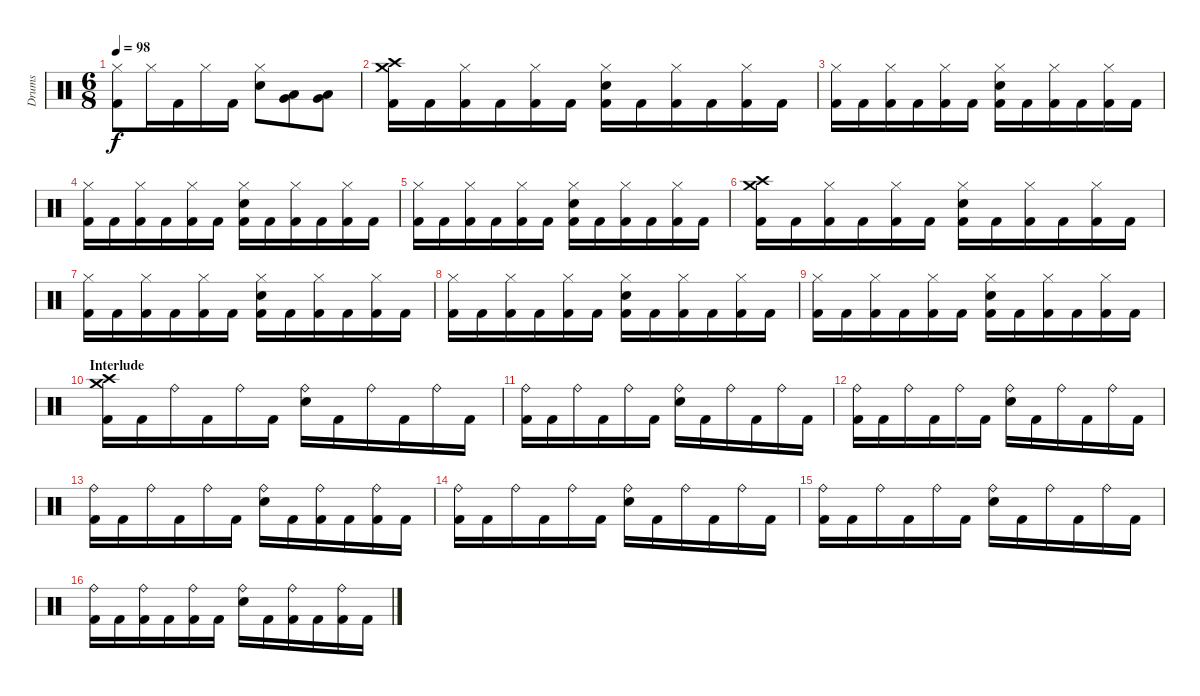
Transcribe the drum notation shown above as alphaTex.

\track ("Drums" "Drums") {instrument percussion}
\staff {score}
\articulation defaults
\ts (6 8)
\tempo 98
\clef neutral
\ks c
("Hi-Hat (closed)" "Kick (hit) 2").8{dy f} "Hi-Hat (closed)".16 "Kick (hit) 2".16 "Hi-Hat (closed)".16 "Kick (hit) 2".16 ("Hi-Hat (closed)" "Electric Snare (hit)").8 ("Low Tom (hit)" "Very Low Tom (hit)").8 ("Very Low Tom (hit)" "Low Floor Tom (hit)").8 |
("Crash high (hit)" "Crash medium (hit)" "Kick (hit) 2").16 "Kick (hit) 2".16 ("Hi-Hat (closed)" "Kick (hit) 2").16 "Kick (hit) 2".16 ("Hi-Hat (closed)" "Kick (hit) 2").16 "Kick (hit) 2".16 ("Hi-Hat (closed)" "Electric Snare (hit)" "Kick (hit) 2").16 "Kick (hit) 2".16 ("Hi-Hat (closed)" "Kick (hit) 2").16 "Kick (hit) 2".16 ("Hi-Hat (closed)" "Kick (hit) 2").16 "Kick (hit) 2".16 |
("Hi-Hat (closed)" "Kick (hit) 2").16 "Kick (hit) 2".16 ("Hi-Hat (closed)" "Kick (hit) 2").16 "Kick (hit) 2".16 ("Hi-Hat (closed)" "Kick (hit) 2").16 "Kick (hit) 2".16 ("Hi-Hat (closed)" "Electric Snare (hit)" "Kick (hit) 2").16 "Kick (hit) 2".16 ("Hi-Hat (closed)" "Kick (hit) 2").16 "Kick (hit) 2".16 ("Hi-Hat (closed)" "Kick (hit) 2").16 "Kick (hit) 2".16 |
("Hi-Hat (closed)" "Kick (hit) 2").16 "Kick (hit) 2".16 ("Hi-Hat (closed)" "Kick (hit) 2").16 "Kick (hit) 2".16 ("Hi-Hat (closed)" "Kick (hit) 2").16 "Kick (hit) 2".16 ("Hi-Hat (closed)" "Electric Snare (hit)" "Kick (hit) 2").16 "Kick (hit) 2".16 ("Hi-Hat (closed)" "Kick (hit) 2").16 "Kick (hit) 2".16 ("Hi-Hat (closed)" "Kick (hit) 2").16 "Kick (hit) 2".16 |
("Hi-Hat (closed)" "Kick (hit) 2").16 "Kick (hit) 2".16 ("Hi-Hat (closed)" "Kick (hit) 2").16 "Kick (hit) 2".16 ("Hi-Hat (closed)" "Kick (hit) 2").16 "Kick (hit) 2".16 ("Hi-Hat (closed)" "Electric Snare (hit)" "Kick (hit) 2").16 "Kick (hit) 2".16 ("Hi-Hat (closed)" "Kick (hit) 2").16 "Kick (hit) 2".16 ("Hi-Hat (closed)" "Kick (hit) 2").16 "Kick (hit) 2".16 |
("Crash high (hit)" "Crash medium (hit)" "Kick (hit) 2").16 "Kick (hit) 2".16 ("Hi-Hat (closed)" "Kick (hit) 2").16 "Kick (hit) 2".16 ("Hi-Hat (closed)" "Kick (hit) 2").16 "Kick (hit) 2".16 ("Hi-Hat (closed)" "Electric Snare (hit)" "Kick (hit) 2").16 "Kick (hit) 2".16 ("Hi-Hat (closed)" "Kick (hit) 2").16 "Kick (hit) 2".16 ("Hi-Hat (closed)" "Kick (hit) 2").16 "Kick (hit) 2".16 |
("Hi-Hat (closed)" "Kick (hit) 2").16 "Kick (hit) 2".16 ("Hi-Hat (closed)" "Kick (hit) 2").16 "Kick (hit) 2".16 ("Hi-Hat (closed)" "Kick (hit) 2").16 "Kick (hit) 2".16 ("Hi-Hat (closed)" "Electric Snare (hit)" "Kick (hit) 2").16 "Kick (hit) 2".16 ("Hi-Hat (closed)" "Kick (hit) 2").16 "Kick (hit) 2".16 ("Hi-Hat (closed)" "Kick (hit) 2").16 "Kick (hit) 2".16 |
("Hi-Hat (closed)" "Kick (hit) 2").16 "Kick (hit) 2".16 ("Hi-Hat (closed)" "Kick (hit) 2").16 "Kick (hit) 2".16 ("Hi-Hat (closed)" "Kick (hit) 2").16 "Kick (hit) 2".16 ("Hi-Hat (closed)" "Electric Snare (hit)" "Kick (hit) 2").16 "Kick (hit) 2".16 ("Hi-Hat (closed)" "Kick (hit) 2").16 "Kick (hit) 2".16 ("Hi-Hat (closed)" "Kick (hit) 2").16 "Kick (hit) 2".16 |
("Hi-Hat (closed)" "Kick (hit) 2").16 "Kick (hit) 2".16 ("Hi-Hat (closed)" "Kick (hit) 2").16 "Kick (hit) 2".16 ("Hi-Hat (closed)" "Kick (hit) 2").16 "Kick (hit) 2".16 ("Hi-Hat (closed)" "Electric Snare (hit)" "Kick (hit) 2").16 "Kick (hit) 2".16 ("Hi-Hat (closed)" "Kick (hit) 2").16 "Kick (hit) 2".16 ("Hi-Hat (closed)" "Kick (hit) 2").16 "Kick (hit) 2".16 |
\section ("" "Interlude")
("Crash high (hit)" "Crash medium (hit)" "Kick (hit) 2").16 "Kick (hit) 2".16 "Ride (bell)".16 "Kick (hit) 2".16 "Ride (bell)".16 "Kick (hit) 2".16 ("Ride (bell)" "Electric Snare (hit)").16 "Kick (hit) 2".16 "Ride (bell)".16 "Kick (hit) 2".16 "Ride (bell)".16 "Kick (hit) 2".16 |
("Ride (bell)" "Kick (hit) 2").16 "Kick (hit) 2".16 "Ride (bell)".16 "Kick (hit) 2".16 "Ride (bell)".16 "Kick (hit) 2".16 ("Ride (bell)" "Electric Snare (hit)").16 "Kick (hit) 2".16 "Ride (bell)".16 "Kick (hit) 2".16 "Ride (bell)".16 "Kick (hit) 2".16 |
("Ride (bell)" "Kick (hit) 2").16 "Kick (hit) 2".16 "Ride (bell)".16 "Kick (hit) 2".16 "Ride (bell)".16 "Kick (hit) 2".16 ("Ride (bell)" "Electric Snare (hit)").16 "Kick (hit) 2".16 "Ride (bell)".16 "Kick (hit) 2".16 "Ride (bell)".16 "Kick (hit) 2".16 |
("Ride (bell)" "Kick (hit) 2").16 "Kick (hit) 2".16 "Ride (bell)".16 "Kick (hit) 2".16 "Ride (bell)".16 "Kick (hit) 2".16 ("Ride (bell)" "Electric Snare (hit)").16 "Kick (hit) 2".16 ("Ride (bell)" "Kick (hit) 2").16 "Kick (hit) 2".16 ("Ride (bell)" "Kick (hit) 2").16 "Kick (hit) 2".16 |
("Ride (bell)" "Kick (hit) 2").16 "Kick (hit) 2".16 "Ride (bell)".16 "Kick (hit) 2".16 "Ride (bell)".16 "Kick (hit) 2".16 ("Ride (bell)" "Electric Snare (hit)").16 "Kick (hit) 2".16 "Ride (bell)".16 "Kick (hit) 2".16 "Ride (bell)".16 "Kick (hit) 2".16 |
("Ride (bell)" "Kick (hit) 2").16 "Kick (hit) 2".16 "Ride (bell)".16 "Kick (hit) 2".16 "Ride (bell)".16 "Kick (hit) 2".16 ("Ride (bell)" "Electric Snare (hit)").16 "Kick (hit) 2".16 "Ride (bell)".16 "Kick (hit) 2".16 "Ride (bell)".16 "Kick (hit) 2".16 |
("Ride (bell)" "Kick (hit) 2").16 "Kick (hit) 2".16 ("Ride (bell)" "Kick (hit) 2").16 "Kick (hit) 2".16 ("Ride (bell)" "Kick (hit) 2").16 "Kick (hit) 2".16 ("Ride (bell)" "Electric Snare (hit)").16 "Kick (hit) 2".16 ("Ride (bell)" "Kick (hit) 2").16 "Kick (hit) 2".16 ("Ride (bell)" "Kick (hit) 2").16 "Kick (hit) 2".16
